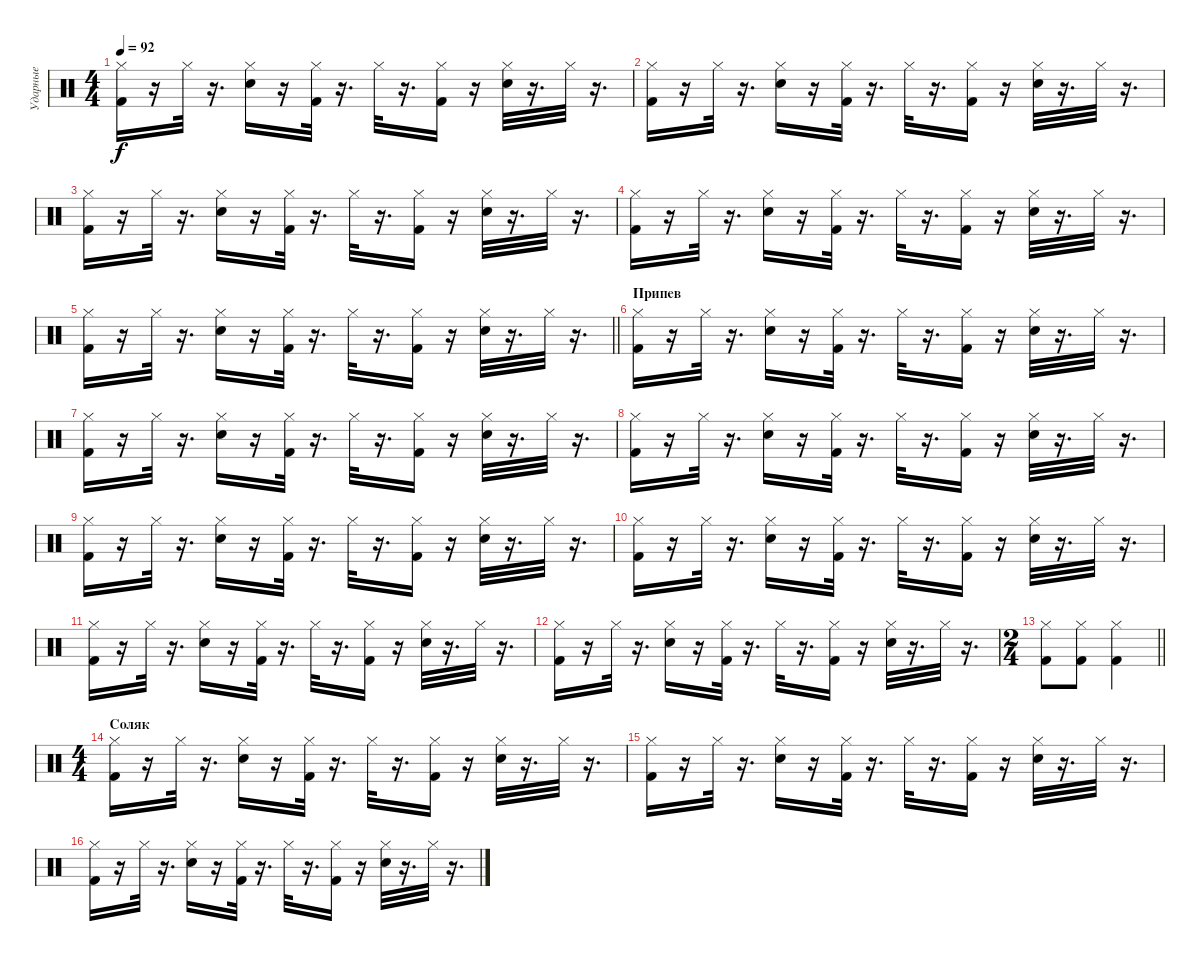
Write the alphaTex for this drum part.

\track ("Ударные" "Ударные") {instrument percussion}
\staff {score}
\articulation defaults
\ts (4 4)
\tempo 92
\clef neutral
\ks c
("Kick (hit) 2" "Hi-Hat (closed)").16{dy f} r.16 "Hi-Hat (closed)".32 r.16{d} ("Electric Snare (hit)" "Hi-Hat (closed)").16 r.16 ("Kick (hit) 2" "Hi-Hat (closed)").32 r.16{d} "Hi-Hat (closed)".32 r.16{d} ("Kick (hit) 2" "Hi-Hat (closed)").16 r.16 ("Electric Snare (hit)" "Hi-Hat (closed)").32 r.16{d} "Hi-Hat (closed)".32 r.16{d} |
("Kick (hit) 2" "Hi-Hat (closed)").16 r.16 "Hi-Hat (closed)".32 r.16{d} ("Electric Snare (hit)" "Hi-Hat (closed)").16 r.16 ("Kick (hit) 2" "Hi-Hat (closed)").32 r.16{d} "Hi-Hat (closed)".32 r.16{d} ("Kick (hit) 2" "Hi-Hat (closed)").16 r.16 ("Electric Snare (hit)" "Hi-Hat (closed)").32 r.16{d} "Hi-Hat (closed)".32 r.16{d} |
("Kick (hit) 2" "Hi-Hat (closed)").16 r.16 "Hi-Hat (closed)".32 r.16{d} ("Electric Snare (hit)" "Hi-Hat (closed)").16 r.16 ("Kick (hit) 2" "Hi-Hat (closed)").32 r.16{d} "Hi-Hat (closed)".32 r.16{d} ("Kick (hit) 2" "Hi-Hat (closed)").16 r.16 ("Electric Snare (hit)" "Hi-Hat (closed)").32 r.16{d} "Hi-Hat (closed)".32 r.16{d} |
("Kick (hit) 2" "Hi-Hat (closed)").16 r.16 "Hi-Hat (closed)".32 r.16{d} ("Electric Snare (hit)" "Hi-Hat (closed)").16 r.16 ("Kick (hit) 2" "Hi-Hat (closed)").32 r.16{d} "Hi-Hat (closed)".32 r.16{d} ("Kick (hit) 2" "Hi-Hat (closed)").16 r.16 ("Electric Snare (hit)" "Hi-Hat (closed)").32 r.16{d} "Hi-Hat (closed)".32 r.16{d} |
\barLineRight lightlight
("Kick (hit) 2" "Hi-Hat (closed)").16 r.16 "Hi-Hat (closed)".32 r.16{d} ("Electric Snare (hit)" "Hi-Hat (closed)").16 r.16 ("Kick (hit) 2" "Hi-Hat (closed)").32 r.16{d} "Hi-Hat (closed)".32 r.16{d} ("Kick (hit) 2" "Hi-Hat (closed)").16 r.16 ("Electric Snare (hit)" "Hi-Hat (closed)").32 r.16{d} "Hi-Hat (closed)".32 r.16{d} |
\section ("" "Припев")
("Kick (hit) 2" "Hi-Hat (closed)").16 r.16 "Hi-Hat (closed)".32 r.16{d} ("Electric Snare (hit)" "Hi-Hat (closed)").16 r.16 ("Kick (hit) 2" "Hi-Hat (closed)").32 r.16{d} "Hi-Hat (closed)".32 r.16{d} ("Kick (hit) 2" "Hi-Hat (closed)").16 r.16 ("Electric Snare (hit)" "Hi-Hat (closed)").32 r.16{d} "Hi-Hat (closed)".32 r.16{d} |
("Kick (hit) 2" "Hi-Hat (closed)").16 r.16 "Hi-Hat (closed)".32 r.16{d} ("Electric Snare (hit)" "Hi-Hat (closed)").16 r.16 ("Kick (hit) 2" "Hi-Hat (closed)").32 r.16{d} "Hi-Hat (closed)".32 r.16{d} ("Kick (hit) 2" "Hi-Hat (closed)").16 r.16 ("Electric Snare (hit)" "Hi-Hat (closed)").32 r.16{d} "Hi-Hat (closed)".32 r.16{d} |
("Kick (hit) 2" "Hi-Hat (closed)").16 r.16 "Hi-Hat (closed)".32 r.16{d} ("Electric Snare (hit)" "Hi-Hat (closed)").16 r.16 ("Kick (hit) 2" "Hi-Hat (closed)").32 r.16{d} "Hi-Hat (closed)".32 r.16{d} ("Kick (hit) 2" "Hi-Hat (closed)").16 r.16 ("Electric Snare (hit)" "Hi-Hat (closed)").32 r.16{d} "Hi-Hat (closed)".32 r.16{d} |
("Kick (hit) 2" "Hi-Hat (closed)").16 r.16 "Hi-Hat (closed)".32 r.16{d} ("Electric Snare (hit)" "Hi-Hat (closed)").16 r.16 ("Kick (hit) 2" "Hi-Hat (closed)").32 r.16{d} "Hi-Hat (closed)".32 r.16{d} ("Kick (hit) 2" "Hi-Hat (closed)").16 r.16 ("Electric Snare (hit)" "Hi-Hat (closed)").32 r.16{d} "Hi-Hat (closed)".32 r.16{d} |
("Kick (hit) 2" "Hi-Hat (closed)").16 r.16 "Hi-Hat (closed)".32 r.16{d} ("Electric Snare (hit)" "Hi-Hat (closed)").16 r.16 ("Kick (hit) 2" "Hi-Hat (closed)").32 r.16{d} "Hi-Hat (closed)".32 r.16{d} ("Kick (hit) 2" "Hi-Hat (closed)").16 r.16 ("Electric Snare (hit)" "Hi-Hat (closed)").32 r.16{d} "Hi-Hat (closed)".32 r.16{d} |
("Kick (hit) 2" "Hi-Hat (closed)").16 r.16 "Hi-Hat (closed)".32 r.16{d} ("Electric Snare (hit)" "Hi-Hat (closed)").16 r.16 ("Kick (hit) 2" "Hi-Hat (closed)").32 r.16{d} "Hi-Hat (closed)".32 r.16{d} ("Kick (hit) 2" "Hi-Hat (closed)").16 r.16 ("Electric Snare (hit)" "Hi-Hat (closed)").32 r.16{d} "Hi-Hat (closed)".32 r.16{d} |
("Kick (hit) 2" "Hi-Hat (closed)").16 r.16 "Hi-Hat (closed)".32 r.16{d} ("Electric Snare (hit)" "Hi-Hat (closed)").16 r.16 ("Kick (hit) 2" "Hi-Hat (closed)").32 r.16{d} "Hi-Hat (closed)".32 r.16{d} ("Kick (hit) 2" "Hi-Hat (closed)").16 r.16 ("Electric Snare (hit)" "Hi-Hat (closed)").32 r.16{d} "Hi-Hat (closed)".32 r.16{d} |
\ts (2 4)
\barLineRight lightlight
("Kick (hit) 2" "Hi-Hat (closed)").8 ("Kick (hit) 2" "Hi-Hat (closed)").8 ("Kick (hit) 2" "Hi-Hat (closed)").4 |
\ts (4 4)
\section ("" "Соляк")
("Kick (hit) 2" "Hi-Hat (closed)").16 r.16 "Hi-Hat (closed)".32 r.16{d} ("Electric Snare (hit)" "Hi-Hat (closed)").16 r.16 ("Kick (hit) 2" "Hi-Hat (closed)").32 r.16{d} "Hi-Hat (closed)".32 r.16{d} ("Kick (hit) 2" "Hi-Hat (closed)").16 r.16 ("Electric Snare (hit)" "Hi-Hat (closed)").32 r.16{d} "Hi-Hat (closed)".32 r.16{d} |
("Kick (hit) 2" "Hi-Hat (closed)").16 r.16 "Hi-Hat (closed)".32 r.16{d} ("Electric Snare (hit)" "Hi-Hat (closed)").16 r.16 ("Kick (hit) 2" "Hi-Hat (closed)").32 r.16{d} "Hi-Hat (closed)".32 r.16{d} ("Kick (hit) 2" "Hi-Hat (closed)").16 r.16 ("Electric Snare (hit)" "Hi-Hat (closed)").32 r.16{d} "Hi-Hat (closed)".32 r.16{d} |
("Kick (hit) 2" "Hi-Hat (closed)").16 r.16 "Hi-Hat (closed)".32 r.16{d} ("Electric Snare (hit)" "Hi-Hat (closed)").16 r.16 ("Kick (hit) 2" "Hi-Hat (closed)").32 r.16{d} "Hi-Hat (closed)".32 r.16{d} ("Kick (hit) 2" "Hi-Hat (closed)").16 r.16 ("Electric Snare (hit)" "Hi-Hat (closed)").32 r.16{d} "Hi-Hat (closed)".32 r.16{d}
